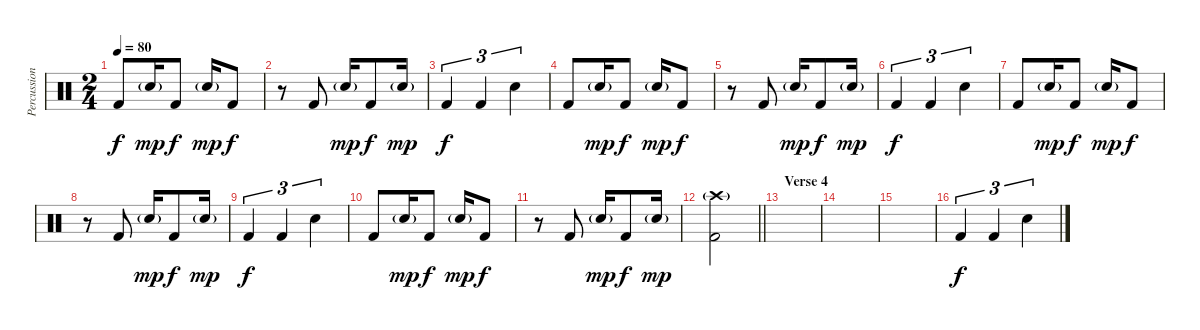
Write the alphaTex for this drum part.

\track ("Percussion" "Percussion") {solo instrument percussion}
\staff {score}
\articulation defaults
\ts (2 4)
\tempo 80
\clef neutral
\ks c "Kick (hit) 2".8{dy f} "Snare (hit) 2"{g}.16{dy mp} "Kick (hit) 2".8{dy f} "Snare (hit) 2"{g}.16{dy mp} "Kick (hit) 2".8{dy f}
|
r.8 "Kick (hit) 2".8 "Snare (hit) 2"{g}.16{dy mp} "Kick (hit) 2".8{dy f} "Snare (hit) 2"{g}.16{dy mp} |
"Kick (hit) 2".4{tu (3 2) dy f} "Kick (hit) 2".4{tu (3 2)} "Snare (hit) 2".4{tu (3 2)} |
"Kick (hit) 2".8 "Snare (hit) 2"{g}.16{dy mp} "Kick (hit) 2".8{dy f} "Snare (hit) 2"{g}.16{dy mp} "Kick (hit) 2".8{dy f} |
r.8 "Kick (hit) 2".8 "Snare (hit) 2"{g}.16{dy mp} "Kick (hit) 2".8{dy f} "Snare (hit) 2"{g}.16{dy mp} |
"Kick (hit) 2".4{tu (3 2) dy f} "Kick (hit) 2".4{tu (3 2)} "Snare (hit) 2".4{tu (3 2)} |
"Kick (hit) 2".8 "Snare (hit) 2"{g}.16{dy mp} "Kick (hit) 2".8{dy f} "Snare (hit) 2"{g}.16{dy mp} "Kick (hit) 2".8{dy f} |
r.8 "Kick (hit) 2".8 "Snare (hit) 2"{g}.16{dy mp} "Kick (hit) 2".8{dy f} "Snare (hit) 2"{g}.16{dy mp} |
"Kick (hit) 2".4{tu (3 2) dy f} "Kick (hit) 2".4{tu (3 2)} "Snare (hit) 2".4{tu (3 2)} |
"Kick (hit) 2".8 "Snare (hit) 2"{g}.16{dy mp} "Kick (hit) 2".8{dy f} "Snare (hit) 2"{g}.16{dy mp} "Kick (hit) 2".8{dy f} |
r.8 "Kick (hit) 2".8 "Snare (hit) 2"{g}.16{dy mp} "Kick (hit) 2".8{dy f} "Snare (hit) 2"{g}.16{dy mp} |
\barLineRight lightlight
("Crash high (hit)"{g} "Kick (hit) 2").2 |
\section ("" "Verse 4")
|
|
|
"Kick (hit) 2".4{tu (3 2) dy f} "Kick (hit) 2".4{tu (3 2)} "Snare (hit) 2".4{tu (3 2)}
